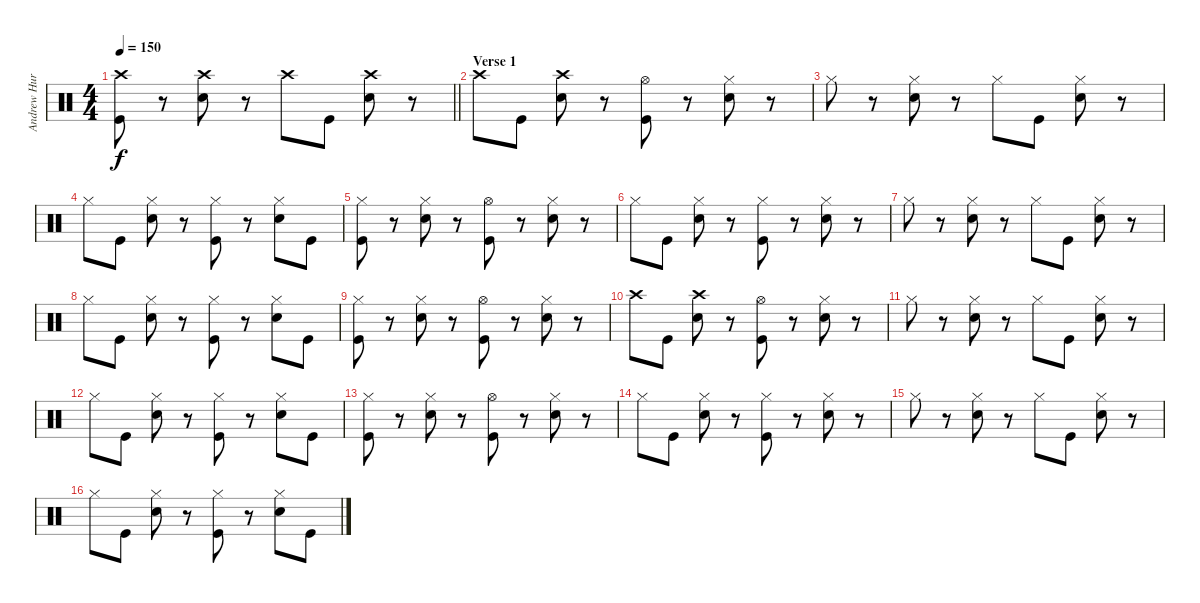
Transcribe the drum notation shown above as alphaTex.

\track ("Andrew Hurley (Drums)" "Andrew Hur") {instrument percussion}
\staff {score}
\articulation defaults
\ts (4 4)
\tempo 150
\clef neutral
\barLineRight lightlight
\ks c
("Crash high (hit)" "Kick (hit)").8{dy f} r.8 ("Crash high (hit)" "Snare (hit) 2").8 r.8 "Crash high (hit)".8 "Kick (hit)".8 ("Crash high (hit)" "Snare (hit) 2").8 r.8 |
\section ("" "Verse 1")
"Crash high (hit)".8 "Kick (hit)".8 ("Crash high (hit)" "Snare (hit) 2").8 r.8 ("Hi-Hat (open)" "Kick (hit)").8 r.8 ("Hi-Hat (closed)" "Snare (hit) 2").8 r.8 |
"Hi-Hat (closed)".8 r.8 ("Hi-Hat (closed)" "Snare (hit) 2").8 r.8 "Hi-Hat (closed)".8 "Kick (hit)".8 ("Hi-Hat (closed)" "Snare (hit) 2").8 r.8 |
"Hi-Hat (closed)".8 "Kick (hit)".8 ("Hi-Hat (closed)" "Snare (hit) 2").8 r.8 ("Hi-Hat (closed)" "Kick (hit)").8 r.8 ("Hi-Hat (closed)" "Snare (hit) 2").8 "Kick (hit)".8 |
("Hi-Hat (closed)" "Kick (hit)").8 r.8 ("Hi-Hat (closed)" "Snare (hit) 2").8 r.8 ("Hi-Hat (open)" "Kick (hit)").8 r.8 ("Hi-Hat (closed)" "Snare (hit) 2").8 r.8 |
"Hi-Hat (closed)".8 "Kick (hit)".8 ("Hi-Hat (closed)" "Snare (hit) 2").8 r.8 ("Hi-Hat (closed)" "Kick (hit)").8 r.8 ("Hi-Hat (closed)" "Snare (hit) 2").8 r.8 |
"Hi-Hat (closed)".8 r.8 ("Hi-Hat (closed)" "Snare (hit) 2").8 r.8 "Hi-Hat (closed)".8 "Kick (hit)".8 ("Hi-Hat (closed)" "Snare (hit) 2").8 r.8 |
"Hi-Hat (closed)".8 "Kick (hit)".8 ("Hi-Hat (closed)" "Snare (hit) 2").8 r.8 ("Hi-Hat (closed)" "Kick (hit)").8 r.8 ("Hi-Hat (closed)" "Snare (hit) 2").8 "Kick (hit)".8 |
("Hi-Hat (closed)" "Kick (hit)").8 r.8 ("Hi-Hat (closed)" "Snare (hit) 2").8 r.8 ("Hi-Hat (open)" "Kick (hit)").8 r.8 ("Hi-Hat (closed)" "Snare (hit) 2").8 r.8 |
"Crash high (hit)".8 "Kick (hit)".8 ("Crash high (hit)" "Snare (hit) 2").8 r.8 ("Hi-Hat (open)" "Kick (hit)").8 r.8 ("Hi-Hat (closed)" "Snare (hit) 2").8 r.8 |
"Hi-Hat (closed)".8 r.8 ("Hi-Hat (closed)" "Snare (hit) 2").8 r.8 "Hi-Hat (closed)".8 "Kick (hit)".8 ("Hi-Hat (closed)" "Snare (hit) 2").8 r.8 |
"Hi-Hat (closed)".8 "Kick (hit)".8 ("Hi-Hat (closed)" "Snare (hit) 2").8 r.8 ("Hi-Hat (closed)" "Kick (hit)").8 r.8 ("Hi-Hat (closed)" "Snare (hit) 2").8 "Kick (hit)".8 |
("Hi-Hat (closed)" "Kick (hit)").8 r.8 ("Hi-Hat (closed)" "Snare (hit) 2").8 r.8 ("Hi-Hat (open)" "Kick (hit)").8 r.8 ("Hi-Hat (closed)" "Snare (hit) 2").8 r.8 |
"Hi-Hat (closed)".8 "Kick (hit)".8 ("Hi-Hat (closed)" "Snare (hit) 2").8 r.8 ("Hi-Hat (closed)" "Kick (hit)").8 r.8 ("Hi-Hat (closed)" "Snare (hit) 2").8 r.8 |
"Hi-Hat (closed)".8 r.8 ("Hi-Hat (closed)" "Snare (hit) 2").8 r.8 "Hi-Hat (closed)".8 "Kick (hit)".8 ("Hi-Hat (closed)" "Snare (hit) 2").8 r.8 |
"Hi-Hat (closed)".8 "Kick (hit)".8 ("Hi-Hat (closed)" "Snare (hit) 2").8 r.8 ("Hi-Hat (closed)" "Kick (hit)").8 r.8 ("Hi-Hat (closed)" "Snare (hit) 2").8 "Kick (hit)".8
